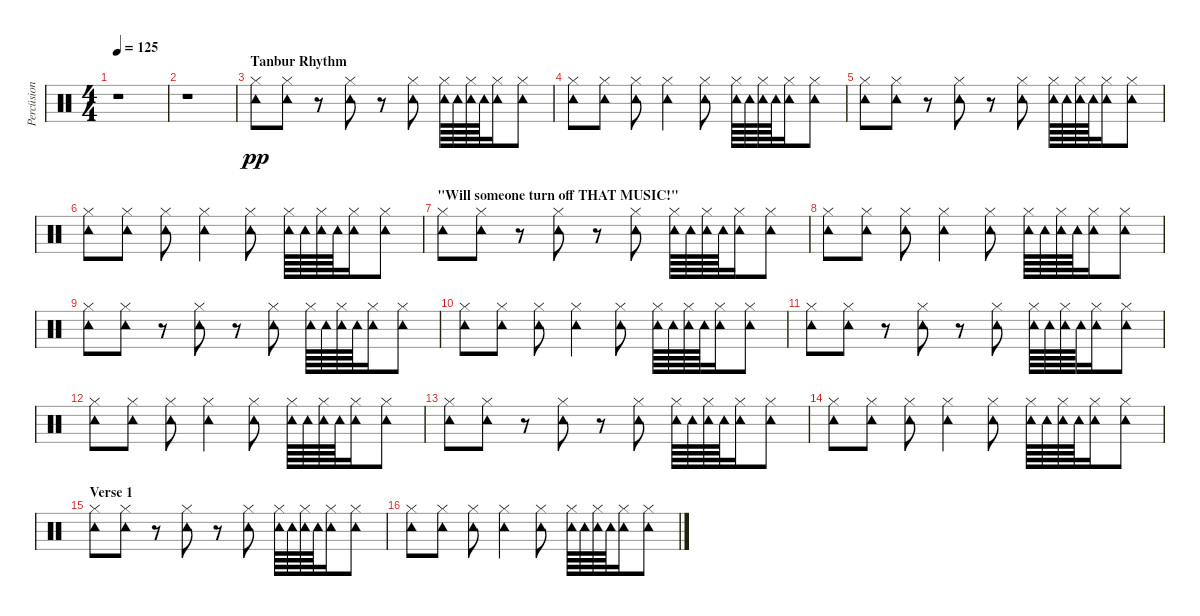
\track ("Percüsion" "Percüsion") {instrument percussion}
\staff {score}
\articulation defaults
\ts (4 4)
\tempo 125
\clef neutral
\ks c
r.1{dy pp} |
r.1 |
\section ("" "Tanbur Rhythm")
("Hi-Hat (closed)" "Tambourine (hit)").8 ("Hi-Hat (closed)" "Tambourine (hit)").8 r.8 ("Hi-Hat (closed)" "Tambourine (hit)").8 r.8 ("Hi-Hat (closed)" "Tambourine (hit)").8 ("Hi-Hat (closed)" "Tambourine (hit)").64 "Tambourine (hit)".64 ("Hi-Hat (closed)" "Tambourine (hit)").64 "Tambourine (hit)".64 ("Hi-Hat (closed)" "Tambourine (hit)").16 ("Hi-Hat (closed)" "Tambourine (hit)").8 |
("Hi-Hat (closed)" "Tambourine (hit)").8 ("Hi-Hat (closed)" "Tambourine (hit)").8 ("Hi-Hat (closed)" "Tambourine (hit)").8 ("Hi-Hat (closed)" "Tambourine (hit)").4 ("Hi-Hat (closed)" "Tambourine (hit)").8 ("Hi-Hat (closed)" "Tambourine (hit)").64 "Tambourine (hit)".64 ("Hi-Hat (closed)" "Tambourine (hit)").64 "Tambourine (hit)".64 ("Hi-Hat (closed)" "Tambourine (hit)").16 ("Hi-Hat (closed)" "Tambourine (hit)").8 |
("Hi-Hat (closed)" "Tambourine (hit)").8 ("Hi-Hat (closed)" "Tambourine (hit)").8 r.8 ("Hi-Hat (closed)" "Tambourine (hit)").8 r.8 ("Hi-Hat (closed)" "Tambourine (hit)").8 ("Hi-Hat (closed)" "Tambourine (hit)").64 "Tambourine (hit)".64 ("Hi-Hat (closed)" "Tambourine (hit)").64 "Tambourine (hit)".64 ("Hi-Hat (closed)" "Tambourine (hit)").16 ("Hi-Hat (closed)" "Tambourine (hit)").8 |
("Hi-Hat (closed)" "Tambourine (hit)").8 ("Hi-Hat (closed)" "Tambourine (hit)").8 ("Hi-Hat (closed)" "Tambourine (hit)").8 ("Hi-Hat (closed)" "Tambourine (hit)").4 ("Hi-Hat (closed)" "Tambourine (hit)").8 ("Hi-Hat (closed)" "Tambourine (hit)").64 "Tambourine (hit)".64 ("Hi-Hat (closed)" "Tambourine (hit)").64 "Tambourine (hit)".64 ("Hi-Hat (closed)" "Tambourine (hit)").16 ("Hi-Hat (closed)" "Tambourine (hit)").8 |
\section ("" "\"Will someone turn off THAT MUSIC!\"")
("Hi-Hat (closed)" "Tambourine (hit)").8 ("Hi-Hat (closed)" "Tambourine (hit)").8 r.8 ("Hi-Hat (closed)" "Tambourine (hit)").8 r.8 ("Hi-Hat (closed)" "Tambourine (hit)").8 ("Hi-Hat (closed)" "Tambourine (hit)").64 "Tambourine (hit)".64 ("Hi-Hat (closed)" "Tambourine (hit)").64 "Tambourine (hit)".64 ("Hi-Hat (closed)" "Tambourine (hit)").16 ("Hi-Hat (closed)" "Tambourine (hit)").8 |
("Hi-Hat (closed)" "Tambourine (hit)").8 ("Hi-Hat (closed)" "Tambourine (hit)").8 ("Hi-Hat (closed)" "Tambourine (hit)").8 ("Hi-Hat (closed)" "Tambourine (hit)").4 ("Hi-Hat (closed)" "Tambourine (hit)").8 ("Hi-Hat (closed)" "Tambourine (hit)").64 "Tambourine (hit)".64 ("Hi-Hat (closed)" "Tambourine (hit)").64 "Tambourine (hit)".64 ("Hi-Hat (closed)" "Tambourine (hit)").16 ("Hi-Hat (closed)" "Tambourine (hit)").8 |
("Hi-Hat (closed)" "Tambourine (hit)").8 ("Hi-Hat (closed)" "Tambourine (hit)").8 r.8 ("Hi-Hat (closed)" "Tambourine (hit)").8 r.8 ("Hi-Hat (closed)" "Tambourine (hit)").8 ("Hi-Hat (closed)" "Tambourine (hit)").64 "Tambourine (hit)".64 ("Hi-Hat (closed)" "Tambourine (hit)").64 "Tambourine (hit)".64 ("Hi-Hat (closed)" "Tambourine (hit)").16 ("Hi-Hat (closed)" "Tambourine (hit)").8 |
("Hi-Hat (closed)" "Tambourine (hit)").8 ("Hi-Hat (closed)" "Tambourine (hit)").8 ("Hi-Hat (closed)" "Tambourine (hit)").8 ("Hi-Hat (closed)" "Tambourine (hit)").4 ("Hi-Hat (closed)" "Tambourine (hit)").8 ("Hi-Hat (closed)" "Tambourine (hit)").64 "Tambourine (hit)".64 ("Hi-Hat (closed)" "Tambourine (hit)").64 "Tambourine (hit)".64 ("Hi-Hat (closed)" "Tambourine (hit)").16 ("Hi-Hat (closed)" "Tambourine (hit)").8 |
("Hi-Hat (closed)" "Tambourine (hit)").8 ("Hi-Hat (closed)" "Tambourine (hit)").8 r.8 ("Hi-Hat (closed)" "Tambourine (hit)").8 r.8 ("Hi-Hat (closed)" "Tambourine (hit)").8 ("Hi-Hat (closed)" "Tambourine (hit)").64 "Tambourine (hit)".64 ("Hi-Hat (closed)" "Tambourine (hit)").64 "Tambourine (hit)".64 ("Hi-Hat (closed)" "Tambourine (hit)").16 ("Hi-Hat (closed)" "Tambourine (hit)").8 |
("Hi-Hat (closed)" "Tambourine (hit)").8 ("Hi-Hat (closed)" "Tambourine (hit)").8 ("Hi-Hat (closed)" "Tambourine (hit)").8 ("Hi-Hat (closed)" "Tambourine (hit)").4 ("Hi-Hat (closed)" "Tambourine (hit)").8 ("Hi-Hat (closed)" "Tambourine (hit)").64 "Tambourine (hit)".64 ("Hi-Hat (closed)" "Tambourine (hit)").64 "Tambourine (hit)".64 ("Hi-Hat (closed)" "Tambourine (hit)").16 ("Hi-Hat (closed)" "Tambourine (hit)").8 |
("Hi-Hat (closed)" "Tambourine (hit)").8 ("Hi-Hat (closed)" "Tambourine (hit)").8 r.8 ("Hi-Hat (closed)" "Tambourine (hit)").8 r.8 ("Hi-Hat (closed)" "Tambourine (hit)").8 ("Hi-Hat (closed)" "Tambourine (hit)").64 "Tambourine (hit)".64 ("Hi-Hat (closed)" "Tambourine (hit)").64 "Tambourine (hit)".64 ("Hi-Hat (closed)" "Tambourine (hit)").16 ("Hi-Hat (closed)" "Tambourine (hit)").8 |
("Hi-Hat (closed)" "Tambourine (hit)").8 ("Hi-Hat (closed)" "Tambourine (hit)").8 ("Hi-Hat (closed)" "Tambourine (hit)").8 ("Hi-Hat (closed)" "Tambourine (hit)").4 ("Hi-Hat (closed)" "Tambourine (hit)").8 ("Hi-Hat (closed)" "Tambourine (hit)").64 "Tambourine (hit)".64 ("Hi-Hat (closed)" "Tambourine (hit)").64 "Tambourine (hit)".64 ("Hi-Hat (closed)" "Tambourine (hit)").16 ("Hi-Hat (closed)" "Tambourine (hit)").8 |
\section ("" "Verse 1")
("Hi-Hat (closed)" "Tambourine (hit)").8 ("Hi-Hat (closed)" "Tambourine (hit)").8 r.8 ("Hi-Hat (closed)" "Tambourine (hit)").8 r.8 ("Hi-Hat (closed)" "Tambourine (hit)").8 ("Hi-Hat (closed)" "Tambourine (hit)").64 "Tambourine (hit)".64 ("Hi-Hat (closed)" "Tambourine (hit)").64 "Tambourine (hit)".64 ("Hi-Hat (closed)" "Tambourine (hit)").16 ("Hi-Hat (closed)" "Tambourine (hit)").8 |
("Hi-Hat (closed)" "Tambourine (hit)").8 ("Hi-Hat (closed)" "Tambourine (hit)").8 ("Hi-Hat (closed)" "Tambourine (hit)").8 ("Hi-Hat (closed)" "Tambourine (hit)").4 ("Hi-Hat (closed)" "Tambourine (hit)").8 ("Hi-Hat (closed)" "Tambourine (hit)").64 "Tambourine (hit)".64 ("Hi-Hat (closed)" "Tambourine (hit)").64 "Tambourine (hit)".64 ("Hi-Hat (closed)" "Tambourine (hit)").16 ("Hi-Hat (closed)" "Tambourine (hit)").8
